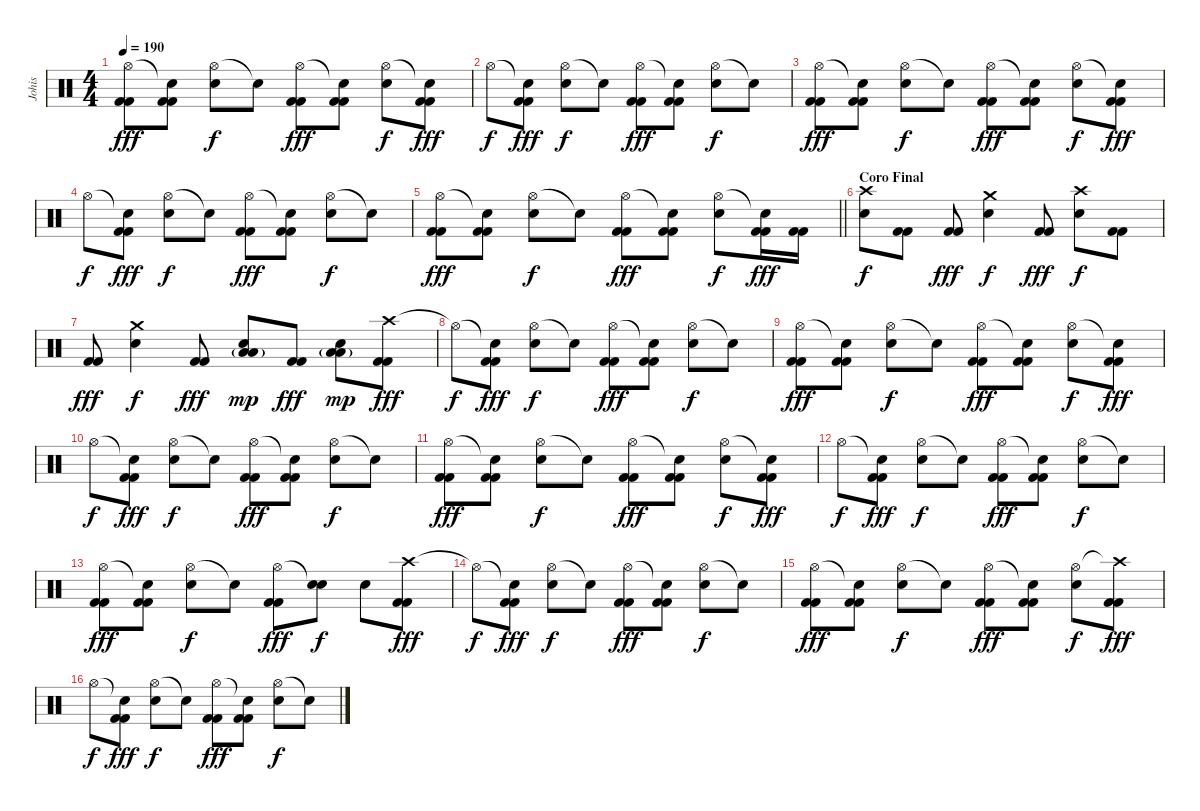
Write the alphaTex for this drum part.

\track ("Johis" "Johis") {instrument percussion}
\staff {score}
\articulation defaults
\ts (4 4)
\tempo 190
\clef neutral
\ks c
("Hi-Hat (open)" "Kick (hit) 2" "Kick (hit) 2").8{dy fff} ("Snare (hit)"{t} "Kick (hit) 2" "Kick (hit) 2").8 ("Hi-Hat (open)" "Electric Snare (hit)").8{dy f} "Snare (hit)"{t}.8 ("Hi-Hat (open)" "Kick (hit) 2" "Kick (hit) 2").8{dy fff} ("Snare (hit)"{t} "Kick (hit) 2" "Kick (hit) 2").8 ("Hi-Hat (open)" "Electric Snare (hit)").8{dy f} ("Snare (hit)"{t} "Kick (hit) 2" "Kick (hit) 2").8{dy fff} |
"Hi-Hat (open)".8{dy f} ("Snare (hit)"{t} "Kick (hit) 2" "Kick (hit) 2").8{dy fff} ("Hi-Hat (open)" "Electric Snare (hit)").8{dy f} "Snare (hit)"{t}.8 ("Hi-Hat (open)" "Kick (hit) 2" "Kick (hit) 2").8{dy fff} ("Snare (hit)"{t} "Kick (hit) 2" "Kick (hit) 2").8 ("Hi-Hat (open)" "Electric Snare (hit)").8{dy f} "Snare (hit)"{t}.8 |
("Hi-Hat (open)" "Kick (hit) 2" "Kick (hit) 2").8{dy fff} ("Snare (hit)"{t} "Kick (hit) 2" "Kick (hit) 2").8 ("Hi-Hat (open)" "Electric Snare (hit)").8{dy f} "Snare (hit)"{t}.8 ("Hi-Hat (open)" "Kick (hit) 2" "Kick (hit) 2").8{dy fff} ("Snare (hit)"{t} "Kick (hit) 2" "Kick (hit) 2").8 ("Hi-Hat (open)" "Electric Snare (hit)").8{dy f} ("Snare (hit)"{t} "Kick (hit) 2" "Kick (hit) 2").8{dy fff} |
"Hi-Hat (open)".8{dy f} ("Snare (hit)"{t} "Kick (hit) 2" "Kick (hit) 2").8{dy fff} ("Hi-Hat (open)" "Electric Snare (hit)").8{dy f} "Snare (hit)"{t}.8 ("Hi-Hat (open)" "Kick (hit) 2" "Kick (hit) 2").8{dy fff} ("Snare (hit)"{t} "Kick (hit) 2" "Kick (hit) 2").8 ("Hi-Hat (open)" "Electric Snare (hit)").8{dy f} "Snare (hit)"{t}.8 |
\barLineRight lightlight
("Hi-Hat (open)" "Kick (hit) 2" "Kick (hit) 2").8{dy fff} ("Snare (hit)"{t} "Kick (hit) 2" "Kick (hit) 2").8 ("Hi-Hat (open)" "Electric Snare (hit)").8{dy f} "Snare (hit)"{t}.8 ("Hi-Hat (open)" "Kick (hit) 2" "Kick (hit) 2").8{dy fff} ("Snare (hit)"{t} "Kick (hit) 2" "Kick (hit) 2").8 ("Hi-Hat (open)" "Electric Snare (hit)").8{dy f} ("Snare (hit)"{t} "Kick (hit) 2" "Kick (hit) 2").16{dy fff} ("Kick (hit) 2" "Kick (hit) 2").16 |
\section ("" "Coro Final")
("Crash high (hit)" "Electric Snare (hit)").8{dy f} ("Kick (hit) 2" "Kick (hit) 2").8 ("Kick (hit) 2" "Kick (hit) 2").8{dy fff} ("Crash medium (hit)" "Electric Snare (hit)").4{dy f} ("Kick (hit) 2" "Kick (hit) 2").8{dy fff} ("Crash high (hit)" "Electric Snare (hit)").8{dy f} ("Kick (hit) 2" "Kick (hit) 2").8 |
("Kick (hit) 2" "Kick (hit) 2").8{dy fff} ("Crash medium (hit)" "Electric Snare (hit)").4{dy f} ("Kick (hit) 2" "Kick (hit) 2").8{dy fff} ("Low Tom (hit)"{g} "Electric Snare (hit)" "Low Floor Tom (hit)").8{dy mp} ("Kick (hit) 2" "Kick (hit) 2").8{dy fff} ("Low Tom (hit)"{g} "Electric Snare (hit)" "Low Floor Tom (hit)").8{dy mp} ("Crash high (hit)" "Kick (hit) 2" "Kick (hit) 2").8{dy fff} |
"Hi-Hat (open)"{t}.8{dy f} ("Snare (hit)"{t} "Kick (hit) 2" "Kick (hit) 2").8{dy fff} ("Hi-Hat (open)" "Electric Snare (hit)").8{dy f} "Snare (hit)"{t}.8 ("Hi-Hat (open)" "Kick (hit) 2" "Kick (hit) 2").8{dy fff} ("Snare (hit)"{t} "Kick (hit) 2" "Kick (hit) 2").8 ("Hi-Hat (open)" "Electric Snare (hit)").8{dy f} "Snare (hit)"{t}.8 |
("Hi-Hat (open)" "Kick (hit) 2" "Kick (hit) 2").8{dy fff} ("Snare (hit)"{t} "Kick (hit) 2" "Kick (hit) 2").8 ("Hi-Hat (open)" "Electric Snare (hit)").8{dy f} "Snare (hit)"{t}.8 ("Hi-Hat (open)" "Kick (hit) 2" "Kick (hit) 2").8{dy fff} ("Snare (hit)"{t} "Kick (hit) 2" "Kick (hit) 2").8 ("Hi-Hat (open)" "Electric Snare (hit)").8{dy f} ("Snare (hit)"{t} "Kick (hit) 2" "Kick (hit) 2").8{dy fff} |
"Hi-Hat (open)".8{dy f} ("Snare (hit)"{t} "Kick (hit) 2" "Kick (hit) 2").8{dy fff} ("Hi-Hat (open)" "Electric Snare (hit)").8{dy f} "Snare (hit)"{t}.8 ("Hi-Hat (open)" "Kick (hit) 2" "Kick (hit) 2").8{dy fff} ("Snare (hit)"{t} "Kick (hit) 2" "Kick (hit) 2").8 ("Hi-Hat (open)" "Electric Snare (hit)").8{dy f} "Snare (hit)"{t}.8 |
("Hi-Hat (open)" "Kick (hit) 2" "Kick (hit) 2").8{dy fff} ("Snare (hit)"{t} "Kick (hit) 2" "Kick (hit) 2").8 ("Hi-Hat (open)" "Electric Snare (hit)").8{dy f} "Snare (hit)"{t}.8 ("Hi-Hat (open)" "Kick (hit) 2" "Kick (hit) 2").8{dy fff} ("Snare (hit)"{t} "Kick (hit) 2" "Kick (hit) 2").8 ("Hi-Hat (open)" "Electric Snare (hit)").8{dy f} ("Snare (hit)"{t} "Kick (hit) 2" "Kick (hit) 2").8{dy fff} |
"Hi-Hat (open)".8{dy f} ("Snare (hit)"{t} "Kick (hit) 2" "Kick (hit) 2").8{dy fff} ("Hi-Hat (open)" "Electric Snare (hit)").8{dy f} "Snare (hit)"{t}.8 ("Hi-Hat (open)" "Kick (hit) 2" "Kick (hit) 2").8{dy fff} ("Snare (hit)"{t} "Kick (hit) 2" "Kick (hit) 2").8 ("Hi-Hat (open)" "Electric Snare (hit)").8{dy f} "Snare (hit)"{t}.8 |
("Hi-Hat (open)" "Kick (hit) 2" "Kick (hit) 2").8{dy fff} ("Snare (hit)"{t} "Kick (hit) 2" "Kick (hit) 2").8 ("Hi-Hat (open)" "Electric Snare (hit)").8{dy f} "Snare (hit)"{t}.8 ("Hi-Hat (open)" "Kick (hit) 2" "Kick (hit) 2").8{dy fff} ("Snare (hit)"{t} "Electric Snare (hit)").8{dy f} "Electric Snare (hit)".8 ("Crash high (hit)" "Kick (hit) 2" "Kick (hit) 2").8{dy fff} |
"Hi-Hat (open)"{t}.8{dy f} ("Snare (hit)"{t} "Kick (hit) 2" "Kick (hit) 2").8{dy fff} ("Hi-Hat (open)" "Electric Snare (hit)").8{dy f} "Snare (hit)"{t}.8 ("Hi-Hat (open)" "Kick (hit) 2" "Kick (hit) 2").8{dy fff} ("Snare (hit)"{t} "Kick (hit) 2" "Kick (hit) 2").8 ("Hi-Hat (open)" "Electric Snare (hit)").8{dy f} "Snare (hit)"{t}.8 |
("Hi-Hat (open)" "Kick (hit) 2" "Kick (hit) 2").8{dy fff} ("Snare (hit)"{t} "Kick (hit) 2" "Kick (hit) 2").8 ("Hi-Hat (open)" "Electric Snare (hit)").8{dy f} "Snare (hit)"{t}.8 ("Hi-Hat (open)" "Kick (hit) 2" "Kick (hit) 2").8{dy fff} ("Snare (hit)"{t} "Kick (hit) 2" "Kick (hit) 2").8 ("Hi-Hat (open)" "Electric Snare (hit)").8{dy f} ("Crash high (hit)"{t} "Kick (hit) 2" "Kick (hit) 2").8{dy fff} |
"Hi-Hat (open)".8{dy f} ("Snare (hit)"{t} "Kick (hit) 2" "Kick (hit) 2").8{dy fff} ("Hi-Hat (open)" "Electric Snare (hit)").8{dy f} "Snare (hit)"{t}.8 ("Hi-Hat (open)" "Kick (hit) 2" "Kick (hit) 2").8{dy fff} ("Snare (hit)"{t} "Kick (hit) 2" "Kick (hit) 2").8 ("Hi-Hat (open)" "Electric Snare (hit)").8{dy f} "Snare (hit)"{t}.8
